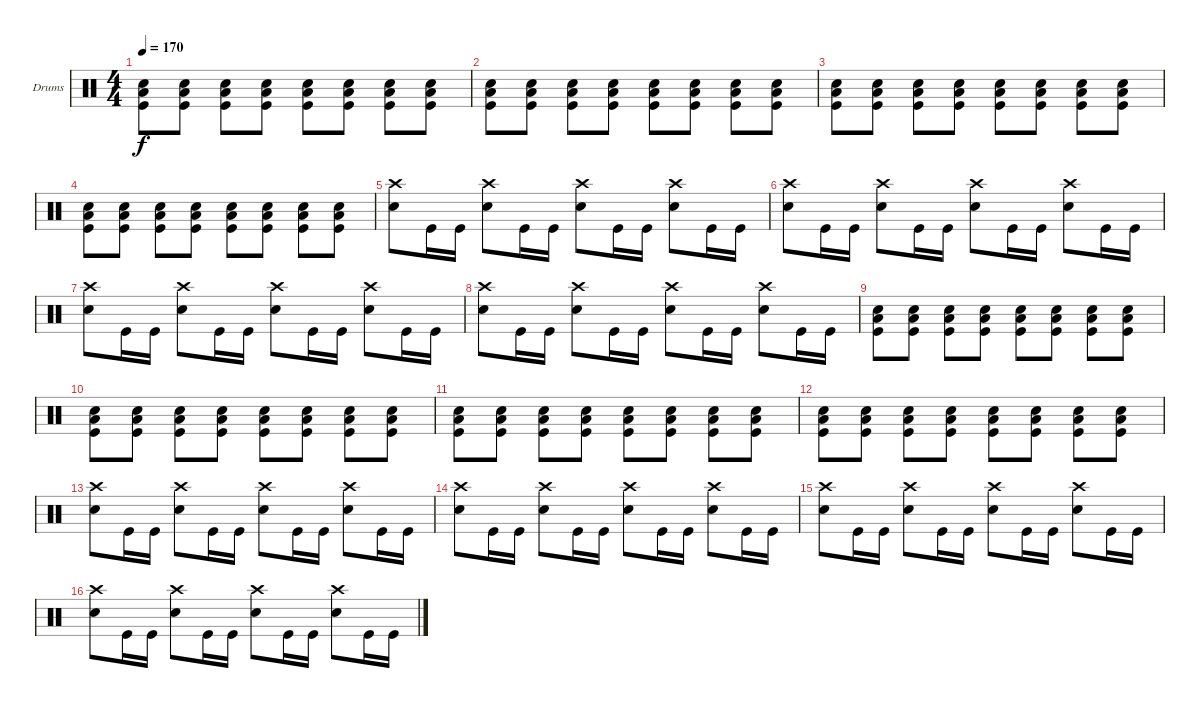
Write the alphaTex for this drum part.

\defaultSystemsLayout 4
\bracketExtendMode groupsimilarinstruments
\firstSystemTrackNameOrientation horizontal
\otherSystemsTrackNameOrientation horizontal
\track ("Drumkit" "Drums") {instrument percussion}
\staff {score}
\articulation defaults
\ts (4 4)
\tempo 170
\clef neutral
\scale
0.474178
\ks c
("Snare (hit) 2" "Kick (hit)" "Low Tom (hit)").8{dy f} ("Snare (hit) 2" "Kick (hit)" "Low Tom (hit)").8 ("Snare (hit) 2" "Kick (hit)" "Low Tom (hit)").8 ("Snare (hit) 2" "Kick (hit)" "Low Tom (hit)").8 ("Snare (hit) 2" "Kick (hit)" "Low Tom (hit)").8 ("Snare (hit) 2" "Kick (hit)" "Low Tom (hit)").8 ("Snare (hit) 2" "Kick (hit)" "Low Tom (hit)").8 ("Snare (hit) 2" "Kick (hit)" "Low Tom (hit)").8 |
\scale
0.262911 ("Snare (hit) 2" "Kick (hit)" "Low Tom (hit)").8 ("Snare (hit) 2" "Kick (hit)" "Low Tom (hit)").8 ("Snare (hit) 2" "Kick (hit)" "Low Tom (hit)").8 ("Snare (hit) 2" "Kick (hit)" "Low Tom (hit)").8 ("Snare (hit) 2" "Kick (hit)" "Low Tom (hit)").8 ("Snare (hit) 2" "Kick (hit)" "Low Tom (hit)").8 ("Snare (hit) 2" "Kick (hit)" "Low Tom (hit)").8 ("Snare (hit) 2" "Kick (hit)" "Low Tom (hit)").8 |
\scale
0.262911 ("Snare (hit) 2" "Kick (hit)" "Low Tom (hit)").8 ("Snare (hit) 2" "Kick (hit)" "Low Tom (hit)").8 ("Snare (hit) 2" "Kick (hit)" "Low Tom (hit)").8 ("Snare (hit) 2" "Kick (hit)" "Low Tom (hit)").8 ("Snare (hit) 2" "Kick (hit)" "Low Tom (hit)").8 ("Snare (hit) 2" "Kick (hit)" "Low Tom (hit)").8 ("Snare (hit) 2" "Kick (hit)" "Low Tom (hit)").8 ("Snare (hit) 2" "Kick (hit)" "Low Tom (hit)").8 |
\scale
0.333333 ("Snare (hit) 2" "Kick (hit)" "Low Tom (hit)").8 ("Snare (hit) 2" "Kick (hit)" "Low Tom (hit)").8 ("Snare (hit) 2" "Kick (hit)" "Low Tom (hit)").8 ("Snare (hit) 2" "Kick (hit)" "Low Tom (hit)").8 ("Snare (hit) 2" "Kick (hit)" "Low Tom (hit)").8 ("Snare (hit) 2" "Kick (hit)" "Low Tom (hit)").8 ("Snare (hit) 2" "Kick (hit)" "Low Tom (hit)").8 ("Snare (hit) 2" "Kick (hit)" "Low Tom (hit)").8 |
\scale
0.333333 ("Snare (hit) 2" "Crash high (hit)").8 "Kick (hit)".16 "Kick (hit)".16 ("Snare (hit) 2" "Crash high (hit)").8 "Kick (hit)".16 "Kick (hit)".16 ("Snare (hit) 2" "Crash high (hit)").8 "Kick (hit)".16 "Kick (hit)".16 ("Snare (hit) 2" "Crash high (hit)").8 "Kick (hit)".16 "Kick (hit)".16 |
\scale
0.333333 ("Snare (hit) 2" "Crash high (hit)").8 "Kick (hit)".16 "Kick (hit)".16 ("Snare (hit) 2" "Crash high (hit)").8 "Kick (hit)".16 "Kick (hit)".16 ("Snare (hit) 2" "Crash high (hit)").8 "Kick (hit)".16 "Kick (hit)".16 ("Snare (hit) 2" "Crash high (hit)").8 "Kick (hit)".16 "Kick (hit)".16 |
\scale
0.333333 ("Snare (hit) 2" "Crash high (hit)").8 "Kick (hit)".16 "Kick (hit)".16 ("Snare (hit) 2" "Crash high (hit)").8 "Kick (hit)".16 "Kick (hit)".16 ("Snare (hit) 2" "Crash high (hit)").8 "Kick (hit)".16 "Kick (hit)".16 ("Snare (hit) 2" "Crash high (hit)").8 "Kick (hit)".16 "Kick (hit)".16 |
\scale
0.333333 ("Snare (hit) 2" "Crash high (hit)").8 "Kick (hit)".16 "Kick (hit)".16 ("Snare (hit) 2" "Crash high (hit)").8 "Kick (hit)".16 "Kick (hit)".16 ("Snare (hit) 2" "Crash high (hit)").8 "Kick (hit)".16 "Kick (hit)".16 ("Snare (hit) 2" "Crash high (hit)").8 "Kick (hit)".16 "Kick (hit)".16 |
\scale
0.333333 ("Snare (hit) 2" "Kick (hit)" "Low Tom (hit)").8 ("Snare (hit) 2" "Kick (hit)" "Low Tom (hit)").8 ("Snare (hit) 2" "Kick (hit)" "Low Tom (hit)").8 ("Snare (hit) 2" "Kick (hit)" "Low Tom (hit)").8 ("Snare (hit) 2" "Kick (hit)" "Low Tom (hit)").8 ("Snare (hit) 2" "Kick (hit)" "Low Tom (hit)").8 ("Snare (hit) 2" "Kick (hit)" "Low Tom (hit)").8 ("Snare (hit) 2" "Kick (hit)" "Low Tom (hit)").8 |
\scale
0.333333 ("Snare (hit) 2" "Kick (hit)" "Low Tom (hit)").8 ("Snare (hit) 2" "Kick (hit)" "Low Tom (hit)").8 ("Snare (hit) 2" "Kick (hit)" "Low Tom (hit)").8 ("Snare (hit) 2" "Kick (hit)" "Low Tom (hit)").8 ("Snare (hit) 2" "Kick (hit)" "Low Tom (hit)").8 ("Snare (hit) 2" "Kick (hit)" "Low Tom (hit)").8 ("Snare (hit) 2" "Kick (hit)" "Low Tom (hit)").8 ("Snare (hit) 2" "Kick (hit)" "Low Tom (hit)").8 |
\scale
0.333333 ("Snare (hit) 2" "Kick (hit)" "Low Tom (hit)").8 ("Snare (hit) 2" "Kick (hit)" "Low Tom (hit)").8 ("Snare (hit) 2" "Kick (hit)" "Low Tom (hit)").8 ("Snare (hit) 2" "Kick (hit)" "Low Tom (hit)").8 ("Snare (hit) 2" "Kick (hit)" "Low Tom (hit)").8 ("Snare (hit) 2" "Kick (hit)" "Low Tom (hit)").8 ("Snare (hit) 2" "Kick (hit)" "Low Tom (hit)").8 ("Snare (hit) 2" "Kick (hit)" "Low Tom (hit)").8 |
\scale
0.333333 ("Snare (hit) 2" "Kick (hit)" "Low Tom (hit)").8 ("Snare (hit) 2" "Kick (hit)" "Low Tom (hit)").8 ("Snare (hit) 2" "Kick (hit)" "Low Tom (hit)").8 ("Snare (hit) 2" "Kick (hit)" "Low Tom (hit)").8 ("Snare (hit) 2" "Kick (hit)" "Low Tom (hit)").8 ("Snare (hit) 2" "Kick (hit)" "Low Tom (hit)").8 ("Snare (hit) 2" "Kick (hit)" "Low Tom (hit)").8 ("Snare (hit) 2" "Kick (hit)" "Low Tom (hit)").8 |
\scale
0.333333 ("Snare (hit) 2" "Crash high (hit)").8 "Kick (hit)".16 "Kick (hit)".16 ("Snare (hit) 2" "Crash high (hit)").8 "Kick (hit)".16 "Kick (hit)".16 ("Snare (hit) 2" "Crash high (hit)").8 "Kick (hit)".16 "Kick (hit)".16 ("Snare (hit) 2" "Crash high (hit)").8 "Kick (hit)".16 "Kick (hit)".16 |
\scale
0.333333 ("Snare (hit) 2" "Crash high (hit)").8 "Kick (hit)".16 "Kick (hit)".16 ("Snare (hit) 2" "Crash high (hit)").8 "Kick (hit)".16 "Kick (hit)".16 ("Snare (hit) 2" "Crash high (hit)").8 "Kick (hit)".16 "Kick (hit)".16 ("Snare (hit) 2" "Crash high (hit)").8 "Kick (hit)".16 "Kick (hit)".16 |
\scale
0.333333 ("Snare (hit) 2" "Crash high (hit)").8 "Kick (hit)".16 "Kick (hit)".16 ("Snare (hit) 2" "Crash high (hit)").8 "Kick (hit)".16 "Kick (hit)".16 ("Snare (hit) 2" "Crash high (hit)").8 "Kick (hit)".16 "Kick (hit)".16 ("Snare (hit) 2" "Crash high (hit)").8 "Kick (hit)".16 "Kick (hit)".16 |
\scale
0.333333 ("Snare (hit) 2" "Crash high (hit)").8 "Kick (hit)".16 "Kick (hit)".16 ("Snare (hit) 2" "Crash high (hit)").8 "Kick (hit)".16 "Kick (hit)".16 ("Snare (hit) 2" "Crash high (hit)").8 "Kick (hit)".16 "Kick (hit)".16 ("Snare (hit) 2" "Crash high (hit)").8 "Kick (hit)".16 "Kick (hit)".16
